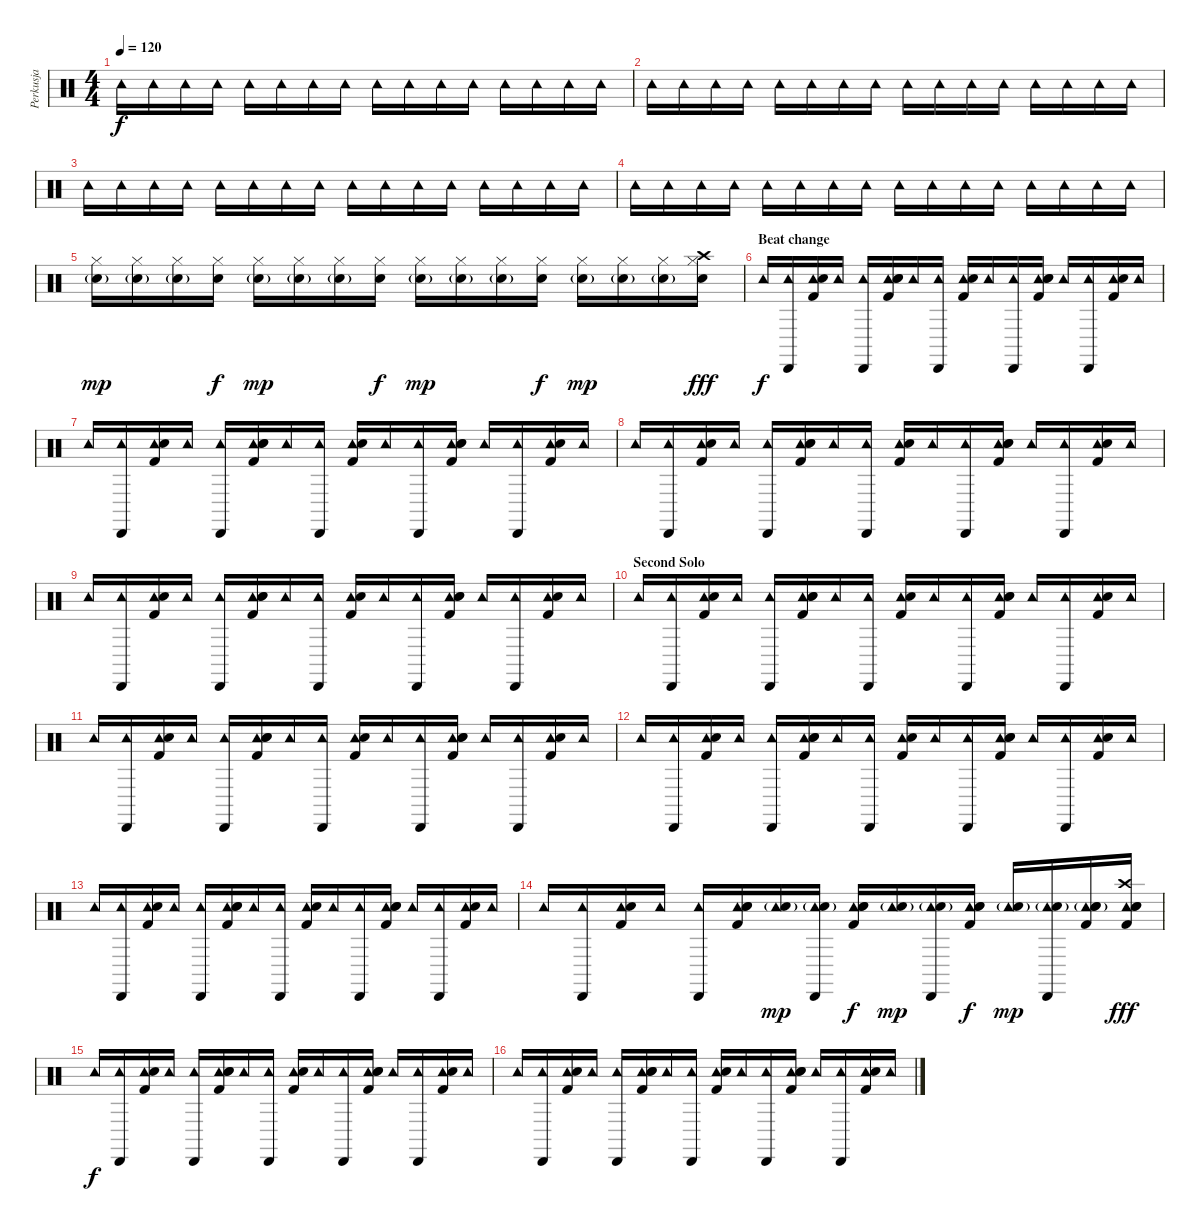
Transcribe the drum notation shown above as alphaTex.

\track ("Perkusja" "Perkusja") {instrument percussion}
\staff {score}
\articulation defaults
\ts (4 4)
\tempo 120
\clef neutral
\ks c "Tambourine (hit)".16{dy f} "Tambourine (hit)".16 "Tambourine (hit)".16 "Tambourine (hit)".16 "Tambourine (hit)".16 "Tambourine (hit)".16 "Tambourine (hit)".16 "Tambourine (hit)".16 "Tambourine (hit)".16 "Tambourine (hit)".16 "Tambourine (hit)".16 "Tambourine (hit)".16 "Tambourine (hit)".16 "Tambourine (hit)".16 "Tambourine (hit)".16 "Tambourine (hit)".16
|
"Tambourine (hit)".16 "Tambourine (hit)".16 "Tambourine (hit)".16 "Tambourine (hit)".16 "Tambourine (hit)".16 "Tambourine (hit)".16 "Tambourine (hit)".16 "Tambourine (hit)".16 "Tambourine (hit)".16 "Tambourine (hit)".16 "Tambourine (hit)".16 "Tambourine (hit)".16 "Tambourine (hit)".16 "Tambourine (hit)".16 "Tambourine (hit)".16 "Tambourine (hit)".16 |
"Tambourine (hit)".16 "Tambourine (hit)".16 "Tambourine (hit)".16 "Tambourine (hit)".16 "Tambourine (hit)".16 "Tambourine (hit)".16 "Tambourine (hit)".16 "Tambourine (hit)".16 "Tambourine (hit)".16 "Tambourine (hit)".16 "Tambourine (hit)".16 "Tambourine (hit)".16 "Tambourine (hit)".16 "Tambourine (hit)".16 "Tambourine (hit)".16 "Tambourine (hit)".16 |
"Tambourine (hit)".16 "Tambourine (hit)".16 "Tambourine (hit)".16 "Tambourine (hit)".16 "Tambourine (hit)".16 "Tambourine (hit)".16 "Tambourine (hit)".16 "Tambourine (hit)".16 "Tambourine (hit)".16 "Tambourine (hit)".16 "Tambourine (hit)".16 "Tambourine (hit)".16 "Tambourine (hit)".16 "Tambourine (hit)".16 "Tambourine (hit)".16 "Tambourine (hit)".16 |
("Hi-Hat (closed)" "Electric Snare (hit)"{g}).16{dy mp} ("Hi-Hat (closed)" "Electric Snare (hit)"{g}).16 ("Hi-Hat (closed)" "Electric Snare (hit)"{g}).16 ("Hi-Hat (closed)" "Electric Snare (hit)").16{dy f} ("Hi-Hat (closed)" "Electric Snare (hit)"{g}).16{dy mp} ("Hi-Hat (closed)" "Electric Snare (hit)"{g}).16 ("Hi-Hat (closed)" "Electric Snare (hit)"{g}).16 ("Hi-Hat (closed)" "Electric Snare (hit)").16{dy f} ("Hi-Hat (closed)" "Electric Snare (hit)"{g}).16{dy mp} ("Hi-Hat (closed)" "Electric Snare (hit)"{g}).16 ("Hi-Hat (closed)" "Electric Snare (hit)"{g}).16 ("Hi-Hat (closed)" "Electric Snare (hit)").16{dy f} ("Hi-Hat (closed)" "Electric Snare (hit)"{g}).16{dy mp} ("Hi-Hat (closed)" "Electric Snare (hit)"{g}).16 ("Hi-Hat (closed)" "Electric Snare (hit)"{g}).16 ("Hi-Hat (closed)" "Electric Snare (hit)" "Crash high (hit)").16{dy fff} |
\section ("" "Beat change")
"Tambourine (hit)".16{dy f} ("Tambourine (hit)" "Cabasa (hit)").16 ("Tambourine (hit)" "Kick (hit) 2" "Snare (hit) 2").16 "Tambourine (hit)".16 ("Tambourine (hit)" "Cabasa (hit)").16 ("Tambourine (hit)" "Kick (hit) 2" "Electric Snare (hit)" "Snare (hit) 2").16 "Tambourine (hit)".16 ("Tambourine (hit)" "Cabasa (hit)").16 ("Tambourine (hit)" "Kick (hit) 2" "Snare (hit) 2").16 "Tambourine (hit)".16 ("Tambourine (hit)" "Cabasa (hit)").16 ("Tambourine (hit)" "Kick (hit) 2" "Electric Snare (hit)" "Snare (hit) 2").16 "Tambourine (hit)".16 ("Tambourine (hit)" "Cabasa (hit)").16 ("Tambourine (hit)" "Kick (hit) 2" "Snare (hit) 2").16 "Tambourine (hit)".16 |
"Tambourine (hit)".16 ("Tambourine (hit)" "Cabasa (hit)").16 ("Tambourine (hit)" "Kick (hit) 2" "Snare (hit) 2").16 "Tambourine (hit)".16 ("Tambourine (hit)" "Cabasa (hit)").16 ("Tambourine (hit)" "Kick (hit) 2" "Electric Snare (hit)" "Snare (hit) 2").16 "Tambourine (hit)".16 ("Tambourine (hit)" "Cabasa (hit)").16 ("Tambourine (hit)" "Kick (hit) 2" "Snare (hit) 2").16 "Tambourine (hit)".16 ("Tambourine (hit)" "Cabasa (hit)").16 ("Tambourine (hit)" "Kick (hit) 2" "Electric Snare (hit)" "Snare (hit) 2").16 "Tambourine (hit)".16 ("Tambourine (hit)" "Cabasa (hit)").16 ("Tambourine (hit)" "Kick (hit) 2" "Snare (hit) 2").16 "Tambourine (hit)".16 |
"Tambourine (hit)".16 ("Tambourine (hit)" "Cabasa (hit)").16 ("Tambourine (hit)" "Kick (hit) 2" "Snare (hit) 2").16 "Tambourine (hit)".16 ("Tambourine (hit)" "Cabasa (hit)").16 ("Tambourine (hit)" "Kick (hit) 2" "Electric Snare (hit)" "Snare (hit) 2").16 "Tambourine (hit)".16 ("Tambourine (hit)" "Cabasa (hit)").16 ("Tambourine (hit)" "Kick (hit) 2" "Snare (hit) 2").16 "Tambourine (hit)".16 ("Tambourine (hit)" "Cabasa (hit)").16 ("Tambourine (hit)" "Kick (hit) 2" "Electric Snare (hit)" "Snare (hit) 2").16 "Tambourine (hit)".16 ("Tambourine (hit)" "Cabasa (hit)").16 ("Tambourine (hit)" "Kick (hit) 2" "Snare (hit) 2").16 "Tambourine (hit)".16 |
"Tambourine (hit)".16 ("Tambourine (hit)" "Cabasa (hit)").16 ("Tambourine (hit)" "Kick (hit) 2" "Snare (hit) 2").16 "Tambourine (hit)".16 ("Tambourine (hit)" "Cabasa (hit)").16 ("Tambourine (hit)" "Kick (hit) 2" "Electric Snare (hit)" "Snare (hit) 2").16 "Tambourine (hit)".16 ("Tambourine (hit)" "Cabasa (hit)").16 ("Tambourine (hit)" "Kick (hit) 2" "Snare (hit) 2").16 "Tambourine (hit)".16 ("Tambourine (hit)" "Cabasa (hit)").16 ("Tambourine (hit)" "Kick (hit) 2" "Electric Snare (hit)" "Snare (hit) 2").16 "Tambourine (hit)".16 ("Tambourine (hit)" "Cabasa (hit)").16 ("Tambourine (hit)" "Kick (hit) 2" "Snare (hit) 2").16 "Tambourine (hit)".16 |
\section ("" "Second Solo")
"Tambourine (hit)".16 ("Tambourine (hit)" "Cabasa (hit)").16 ("Tambourine (hit)" "Kick (hit) 2" "Snare (hit) 2").16 "Tambourine (hit)".16 ("Tambourine (hit)" "Cabasa (hit)").16 ("Tambourine (hit)" "Kick (hit) 2" "Electric Snare (hit)" "Snare (hit) 2").16 "Tambourine (hit)".16 ("Tambourine (hit)" "Cabasa (hit)").16 ("Tambourine (hit)" "Kick (hit) 2" "Snare (hit) 2").16 "Tambourine (hit)".16 ("Tambourine (hit)" "Cabasa (hit)").16 ("Tambourine (hit)" "Kick (hit) 2" "Electric Snare (hit)" "Snare (hit) 2").16 "Tambourine (hit)".16 ("Tambourine (hit)" "Cabasa (hit)").16 ("Tambourine (hit)" "Kick (hit) 2" "Snare (hit) 2").16 "Tambourine (hit)".16 |
"Tambourine (hit)".16 ("Tambourine (hit)" "Cabasa (hit)").16 ("Tambourine (hit)" "Kick (hit) 2" "Snare (hit) 2").16 "Tambourine (hit)".16 ("Tambourine (hit)" "Cabasa (hit)").16 ("Tambourine (hit)" "Kick (hit) 2" "Electric Snare (hit)" "Snare (hit) 2").16 "Tambourine (hit)".16 ("Tambourine (hit)" "Cabasa (hit)").16 ("Tambourine (hit)" "Kick (hit) 2" "Snare (hit) 2").16 "Tambourine (hit)".16 ("Tambourine (hit)" "Cabasa (hit)").16 ("Tambourine (hit)" "Kick (hit) 2" "Electric Snare (hit)" "Snare (hit) 2").16 "Tambourine (hit)".16 ("Tambourine (hit)" "Cabasa (hit)").16 ("Tambourine (hit)" "Kick (hit) 2" "Snare (hit) 2").16 "Tambourine (hit)".16 |
"Tambourine (hit)".16 ("Tambourine (hit)" "Cabasa (hit)").16 ("Tambourine (hit)" "Kick (hit) 2" "Snare (hit) 2").16 "Tambourine (hit)".16 ("Tambourine (hit)" "Cabasa (hit)").16 ("Tambourine (hit)" "Kick (hit) 2" "Electric Snare (hit)" "Snare (hit) 2").16 "Tambourine (hit)".16 ("Tambourine (hit)" "Cabasa (hit)").16 ("Tambourine (hit)" "Kick (hit) 2" "Snare (hit) 2").16 "Tambourine (hit)".16 ("Tambourine (hit)" "Cabasa (hit)").16 ("Tambourine (hit)" "Kick (hit) 2" "Electric Snare (hit)" "Snare (hit) 2").16 "Tambourine (hit)".16 ("Tambourine (hit)" "Cabasa (hit)").16 ("Tambourine (hit)" "Kick (hit) 2" "Snare (hit) 2").16 "Tambourine (hit)".16 |
"Tambourine (hit)".16 ("Tambourine (hit)" "Cabasa (hit)").16 ("Tambourine (hit)" "Kick (hit) 2" "Snare (hit) 2").16 "Tambourine (hit)".16 ("Tambourine (hit)" "Cabasa (hit)").16 ("Tambourine (hit)" "Kick (hit) 2" "Electric Snare (hit)" "Snare (hit) 2").16 "Tambourine (hit)".16 ("Tambourine (hit)" "Cabasa (hit)").16 ("Tambourine (hit)" "Kick (hit) 2" "Snare (hit) 2").16 "Tambourine (hit)".16 ("Tambourine (hit)" "Cabasa (hit)").16 ("Tambourine (hit)" "Kick (hit) 2" "Electric Snare (hit)" "Snare (hit) 2").16 "Tambourine (hit)".16 ("Tambourine (hit)" "Cabasa (hit)").16 ("Tambourine (hit)" "Kick (hit) 2" "Snare (hit) 2").16 "Tambourine (hit)".16 |
"Tambourine (hit)".16 ("Tambourine (hit)" "Cabasa (hit)").16 ("Tambourine (hit)" "Kick (hit) 2" "Snare (hit) 2").16 "Tambourine (hit)".16 ("Tambourine (hit)" "Cabasa (hit)").16 ("Tambourine (hit)" "Kick (hit) 2" "Electric Snare (hit)" "Snare (hit) 2").16 ("Tambourine (hit)" "Electric Snare (hit)"{g}).16{dy mp} ("Tambourine (hit)" "Electric Snare (hit)"{g} "Cabasa (hit)").16 ("Tambourine (hit)" "Kick (hit) 2" "Snare (hit) 2" "Electric Snare (hit)").16{dy f} ("Tambourine (hit)" "Electric Snare (hit)"{g}).16{dy mp} ("Tambourine (hit)" "Electric Snare (hit)"{g} "Cabasa (hit)").16 ("Tambourine (hit)" "Kick (hit) 2" "Electric Snare (hit)" "Snare (hit) 2").16{dy f} ("Tambourine (hit)" "Electric Snare (hit)"{g}).16{dy mp} ("Tambourine (hit)" "Electric Snare (hit)"{g} "Cabasa (hit)").16 ("Tambourine (hit)" "Kick (hit) 2" "Snare (hit) 2" "Electric Snare (hit)"{g}).16 ("Tambourine (hit)" "Electric Snare (hit)" "Kick (hit) 2" "Snare (hit) 2" "Crash high (hit)").16{dy fff} |
"Tambourine (hit)".16{dy f} ("Tambourine (hit)" "Cabasa (hit)").16 ("Tambourine (hit)" "Kick (hit) 2" "Snare (hit) 2").16 "Tambourine (hit)".16 ("Tambourine (hit)" "Cabasa (hit)").16 ("Tambourine (hit)" "Kick (hit) 2" "Electric Snare (hit)" "Snare (hit) 2").16 "Tambourine (hit)".16 ("Tambourine (hit)" "Cabasa (hit)").16 ("Tambourine (hit)" "Kick (hit) 2" "Snare (hit) 2").16 "Tambourine (hit)".16 ("Tambourine (hit)" "Cabasa (hit)").16 ("Tambourine (hit)" "Kick (hit) 2" "Electric Snare (hit)" "Snare (hit) 2").16 "Tambourine (hit)".16 ("Tambourine (hit)" "Cabasa (hit)").16 ("Tambourine (hit)" "Kick (hit) 2" "Snare (hit) 2").16 "Tambourine (hit)".16 |
"Tambourine (hit)".16 ("Tambourine (hit)" "Cabasa (hit)").16 ("Tambourine (hit)" "Kick (hit) 2" "Snare (hit) 2").16 "Tambourine (hit)".16 ("Tambourine (hit)" "Cabasa (hit)").16 ("Tambourine (hit)" "Kick (hit) 2" "Electric Snare (hit)" "Snare (hit) 2").16 "Tambourine (hit)".16 ("Tambourine (hit)" "Cabasa (hit)").16 ("Tambourine (hit)" "Kick (hit) 2" "Snare (hit) 2").16 "Tambourine (hit)".16 ("Tambourine (hit)" "Cabasa (hit)").16 ("Tambourine (hit)" "Kick (hit) 2" "Electric Snare (hit)" "Snare (hit) 2").16 "Tambourine (hit)".16 ("Tambourine (hit)" "Cabasa (hit)").16 ("Tambourine (hit)" "Kick (hit) 2" "Snare (hit) 2").16 "Tambourine (hit)".16
